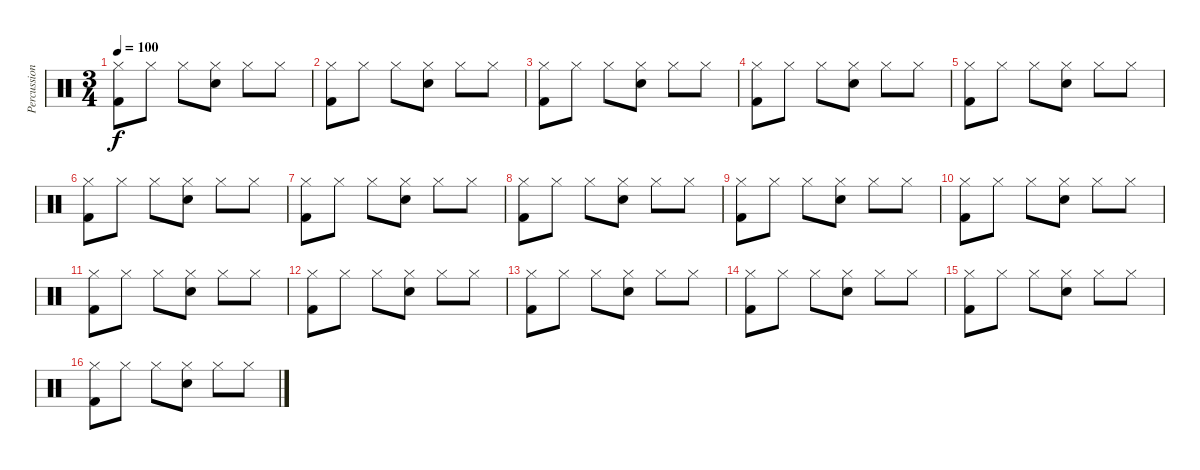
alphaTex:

\track ("Percussion" "Percussion") {instrument percussion}
\staff {score}
\articulation defaults
\ts (3 4)
\tempo 100
\clef neutral
\ks c
("Hi-Hat (closed)" "Kick (hit) 2").8{dy f} "Hi-Hat (closed)".8 "Hi-Hat (closed)".8 ("Hi-Hat (closed)" "Snare (hit) 2").8 "Hi-Hat (closed)".8 "Hi-Hat (closed)".8 |
("Hi-Hat (closed)" "Kick (hit) 2").8 "Hi-Hat (closed)".8 "Hi-Hat (closed)".8 ("Hi-Hat (closed)" "Snare (hit) 2").8 "Hi-Hat (closed)".8 "Hi-Hat (closed)".8 |
("Hi-Hat (closed)" "Kick (hit) 2").8 "Hi-Hat (closed)".8 "Hi-Hat (closed)".8 ("Hi-Hat (closed)" "Snare (hit) 2").8 "Hi-Hat (closed)".8 "Hi-Hat (closed)".8 |
("Hi-Hat (closed)" "Kick (hit) 2").8 "Hi-Hat (closed)".8 "Hi-Hat (closed)".8 ("Hi-Hat (closed)" "Snare (hit) 2").8 "Hi-Hat (closed)".8 "Hi-Hat (closed)".8 |
("Hi-Hat (closed)" "Kick (hit) 2").8 "Hi-Hat (closed)".8 "Hi-Hat (closed)".8 ("Hi-Hat (closed)" "Snare (hit) 2").8 "Hi-Hat (closed)".8 "Hi-Hat (closed)".8 |
("Hi-Hat (closed)" "Kick (hit) 2").8 "Hi-Hat (closed)".8 "Hi-Hat (closed)".8 ("Hi-Hat (closed)" "Snare (hit) 2").8 "Hi-Hat (closed)".8 "Hi-Hat (closed)".8 |
("Hi-Hat (closed)" "Kick (hit) 2").8 "Hi-Hat (closed)".8 "Hi-Hat (closed)".8 ("Hi-Hat (closed)" "Snare (hit) 2").8 "Hi-Hat (closed)".8 "Hi-Hat (closed)".8 |
("Hi-Hat (closed)" "Kick (hit) 2").8 "Hi-Hat (closed)".8 "Hi-Hat (closed)".8 ("Hi-Hat (closed)" "Snare (hit) 2").8 "Hi-Hat (closed)".8 "Hi-Hat (closed)".8 |
("Hi-Hat (closed)" "Kick (hit) 2").8 "Hi-Hat (closed)".8 "Hi-Hat (closed)".8 ("Hi-Hat (closed)" "Snare (hit) 2").8 "Hi-Hat (closed)".8 "Hi-Hat (closed)".8 |
("Hi-Hat (closed)" "Kick (hit) 2").8 "Hi-Hat (closed)".8 "Hi-Hat (closed)".8 ("Hi-Hat (closed)" "Snare (hit) 2").8 "Hi-Hat (closed)".8 "Hi-Hat (closed)".8 |
("Hi-Hat (closed)" "Kick (hit) 2").8 "Hi-Hat (closed)".8 "Hi-Hat (closed)".8 ("Hi-Hat (closed)" "Snare (hit) 2").8 "Hi-Hat (closed)".8 "Hi-Hat (closed)".8 |
("Hi-Hat (closed)" "Kick (hit) 2").8 "Hi-Hat (closed)".8 "Hi-Hat (closed)".8 ("Hi-Hat (closed)" "Snare (hit) 2").8 "Hi-Hat (closed)".8 "Hi-Hat (closed)".8 |
("Hi-Hat (closed)" "Kick (hit) 2").8 "Hi-Hat (closed)".8 "Hi-Hat (closed)".8 ("Hi-Hat (closed)" "Snare (hit) 2").8 "Hi-Hat (closed)".8 "Hi-Hat (closed)".8 |
("Hi-Hat (closed)" "Kick (hit) 2").8 "Hi-Hat (closed)".8 "Hi-Hat (closed)".8 ("Hi-Hat (closed)" "Snare (hit) 2").8 "Hi-Hat (closed)".8 "Hi-Hat (closed)".8 |
("Hi-Hat (closed)" "Kick (hit) 2").8 "Hi-Hat (closed)".8 "Hi-Hat (closed)".8 ("Hi-Hat (closed)" "Snare (hit) 2").8 "Hi-Hat (closed)".8 "Hi-Hat (closed)".8 |
("Hi-Hat (closed)" "Kick (hit) 2").8 "Hi-Hat (closed)".8 "Hi-Hat (closed)".8 ("Hi-Hat (closed)" "Snare (hit) 2").8 "Hi-Hat (closed)".8 "Hi-Hat (closed)".8
